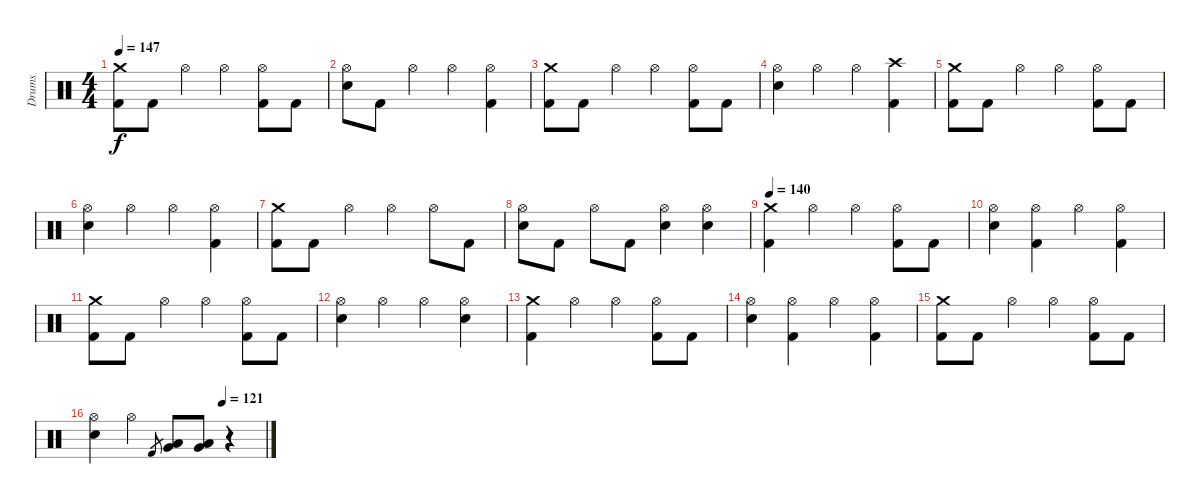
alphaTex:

\track ("Drums" "Drums") {instrument percussion}
\staff {score}
\articulation defaults
\ts (4 4)
\tempo 147
\clef neutral
\ks c
("Crash medium (hit)" "Kick (hit) 2").8{dy f} "Kick (hit) 2".8 "Hi-Hat (open)".4 "Hi-Hat (open)".4 ("Hi-Hat (open)" "Kick (hit) 2").8 "Kick (hit) 2".8 |
("Hi-Hat (open)" "Electric Snare (hit)").8 "Kick (hit) 2".8 "Hi-Hat (open)".4 "Hi-Hat (open)".4 ("Hi-Hat (open)" "Kick (hit) 2").4 |
("Crash medium (hit)" "Kick (hit) 2").8 "Kick (hit) 2".8 "Hi-Hat (open)".4 "Hi-Hat (open)".4 ("Hi-Hat (open)" "Kick (hit) 2").8 "Kick (hit) 2".8 |
("Hi-Hat (open)" "Electric Snare (hit)").4 "Hi-Hat (open)".4 "Hi-Hat (open)".4 ("Crash high (hit)" "Kick (hit) 2").4 |
("Crash medium (hit)" "Kick (hit) 2").8 "Kick (hit) 2".8 "Hi-Hat (open)".4 "Hi-Hat (open)".4 ("Hi-Hat (open)" "Kick (hit) 2").8 "Kick (hit) 2".8 |
("Hi-Hat (open)" "Electric Snare (hit)").4 "Hi-Hat (open)".4 "Hi-Hat (open)".4 ("Hi-Hat (open)" "Kick (hit) 2").4 |
("Crash medium (hit)" "Kick (hit) 2").8 "Kick (hit) 2".8 "Hi-Hat (open)".4 "Hi-Hat (open)".4 "Hi-Hat (open)".8 "Kick (hit) 2".8 |
("Hi-Hat (open)" "Electric Snare (hit)").8 "Kick (hit) 2".8 "Hi-Hat (open)".8 "Kick (hit) 2".8 ("Hi-Hat (open)" "Electric Snare (hit)").4 ("Hi-Hat (open)" "Electric Snare (hit)").4 |
\tempo 140
("Crash medium (hit)" "Kick (hit) 2").4 "Hi-Hat (open)".4 "Hi-Hat (open)".4 ("Hi-Hat (open)" "Kick (hit) 2").8 "Kick (hit) 2".8 |
("Hi-Hat (open)" "Electric Snare (hit)").4 ("Hi-Hat (open)" "Kick (hit) 2").4 "Hi-Hat (open)".4 ("Hi-Hat (open)" "Kick (hit) 2").4 |
("Crash medium (hit)" "Kick (hit) 2").8 "Kick (hit) 2".8 "Hi-Hat (open)".4 "Hi-Hat (open)".4 ("Hi-Hat (open)" "Kick (hit) 2").8 "Kick (hit) 2".8 |
("Hi-Hat (open)" "Electric Snare (hit)").4 "Hi-Hat (open)".4 "Hi-Hat (open)".4 ("Hi-Hat (open)" "Electric Snare (hit)").4 |
("Crash medium (hit)" "Kick (hit) 2").4 "Hi-Hat (open)".4 "Hi-Hat (open)".4 ("Hi-Hat (open)" "Kick (hit) 2").8 "Kick (hit) 2".8 |
("Hi-Hat (open)" "Electric Snare (hit)").4 ("Hi-Hat (open)" "Kick (hit) 2").4 "Hi-Hat (open)".4 ("Hi-Hat (open)" "Kick (hit) 2").4 |
("Crash medium (hit)" "Kick (hit) 2").8 "Kick (hit) 2".8 "Hi-Hat (open)".4 "Hi-Hat (open)".4 ("Hi-Hat (open)" "Kick (hit) 2").8 "Kick (hit) 2".8 |
\tempo (121 0.75)
("Hi-Hat (open)" "Electric Snare (hit)").4 "Hi-Hat (open)".4 "Kick (hit) 2".8{gr} ("Very Low Tom (hit)" "Low Floor Tom (hit)").8 ("Very Low Tom (hit)" "Low Floor Tom (hit)").8 r.4
